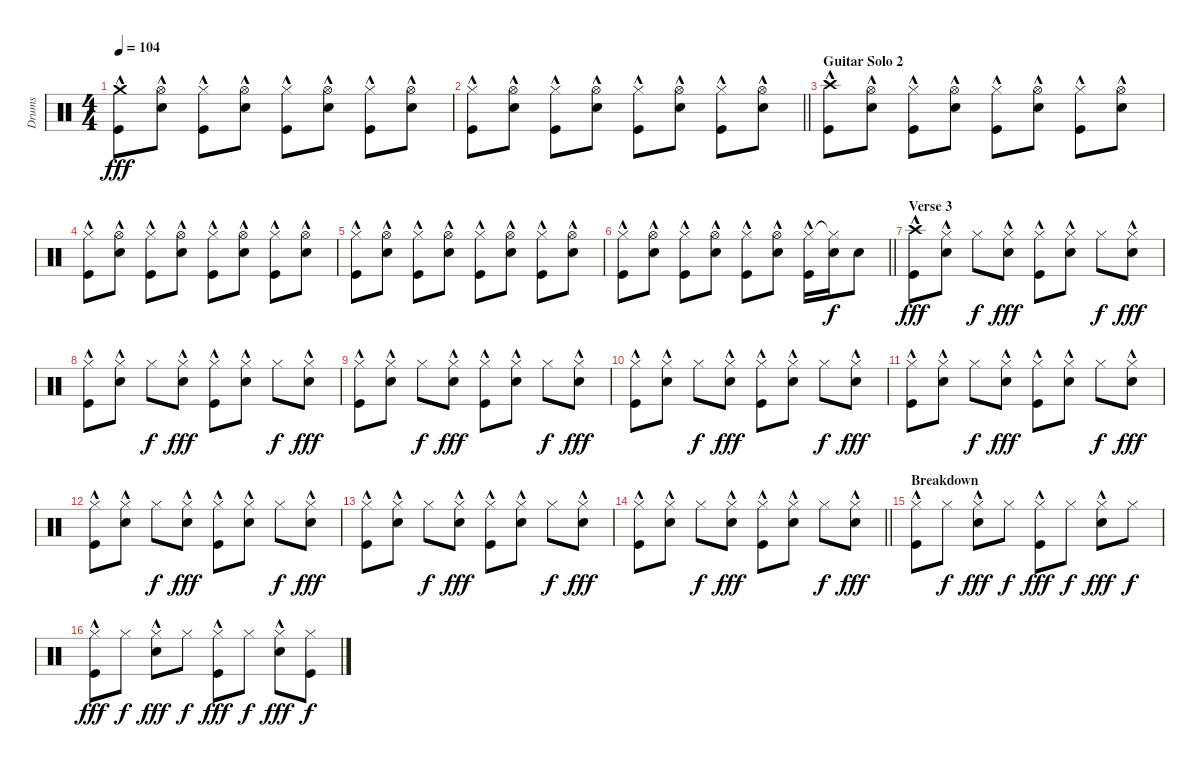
\track ("Drums" "Drums") {instrument percussion}
\staff {score}
\articulation defaults
\ts (4 4)
\tempo 104
\clef neutral
\ks c
("Crash medium (hit)"{hac} "Kick (hit)"{hac}).8{dy fff} ("Hi-Hat (open)"{hac} "Snare (hit) 2"{hac}).8 ("Hi-Hat (closed)" "Kick (hit)"{hac}).8 ("Hi-Hat (open)"{hac} "Snare (hit) 2"{hac}).8 ("Hi-Hat (closed)" "Kick (hit)"{hac}).8 ("Hi-Hat (open)"{hac} "Snare (hit) 2"{hac}).8 ("Hi-Hat (closed)" "Kick (hit)"{hac}).8 ("Hi-Hat (open)"{hac} "Snare (hit) 2"{hac}).8 |
\barLineRight lightlight
("Hi-Hat (closed)" "Kick (hit)"{hac}).8 ("Hi-Hat (open)"{hac} "Snare (hit) 2"{hac}).8 ("Hi-Hat (closed)" "Kick (hit)"{hac}).8 ("Hi-Hat (open)"{hac} "Snare (hit) 2"{hac}).8 ("Hi-Hat (closed)" "Kick (hit)"{hac}).8 ("Hi-Hat (open)"{hac} "Snare (hit) 2"{hac}).8 ("Hi-Hat (closed)" "Kick (hit)"{hac}).8 ("Hi-Hat (open)"{hac} "Snare (hit) 2"{hac}).8 |
\section ("" "Guitar Solo 2")
("Crash high (hit)"{hac} "Kick (hit)"{hac}).8 ("Hi-Hat (open)"{hac} "Snare (hit) 2"{hac}).8 ("Hi-Hat (closed)" "Kick (hit)"{hac}).8 ("Hi-Hat (open)"{hac} "Snare (hit) 2"{hac}).8 ("Hi-Hat (closed)" "Kick (hit)"{hac}).8 ("Hi-Hat (open)"{hac} "Snare (hit) 2"{hac}).8 ("Hi-Hat (closed)" "Kick (hit)"{hac}).8 ("Hi-Hat (open)"{hac} "Snare (hit) 2"{hac}).8 |
("Hi-Hat (closed)" "Kick (hit)"{hac}).8 ("Hi-Hat (open)"{hac} "Snare (hit) 2"{hac}).8 ("Hi-Hat (closed)" "Kick (hit)"{hac}).8 ("Hi-Hat (open)"{hac} "Snare (hit) 2"{hac}).8 ("Hi-Hat (closed)" "Kick (hit)"{hac}).8 ("Hi-Hat (open)"{hac} "Snare (hit) 2"{hac}).8 ("Hi-Hat (closed)" "Kick (hit)"{hac}).8 ("Hi-Hat (open)"{hac} "Snare (hit) 2"{hac}).8 |
("Hi-Hat (closed)" "Kick (hit)"{hac}).8 ("Hi-Hat (open)"{hac} "Snare (hit) 2"{hac}).8 ("Hi-Hat (closed)" "Kick (hit)"{hac}).8 ("Hi-Hat (open)"{hac} "Snare (hit) 2"{hac}).8 ("Hi-Hat (closed)" "Kick (hit)"{hac}).8 ("Hi-Hat (open)"{hac} "Snare (hit) 2"{hac}).8 ("Hi-Hat (closed)" "Kick (hit)"{hac}).8 ("Hi-Hat (open)"{hac} "Snare (hit) 2"{hac}).8 |
\barLineRight lightlight
("Hi-Hat (closed)" "Kick (hit)"{hac}).8 ("Hi-Hat (open)"{hac} "Snare (hit) 2"{hac}).8 ("Hi-Hat (closed)" "Kick (hit)"{hac}).8 ("Hi-Hat (open)"{hac} "Snare (hit) 2"{hac}).8 ("Hi-Hat (closed)" "Kick (hit)"{hac}).8 ("Hi-Hat (open)"{hac} "Snare (hit) 2"{hac}).8 ("Hi-Hat (closed)" "Kick (hit)"{hac}).16 ("Hi-Hat (closed)"{t} "Snare (hit) 2").16{dy f} "Snare (hit) 2".8 |
\section ("" "Verse 3")
("Crash high (hit)"{hac} "Kick (hit)"{hac}).8{dy fff} ("Hi-Hat (closed)"{hac} "Snare (hit) 2"{hac}).8 "Hi-Hat (closed)".8{dy f} ("Hi-Hat (closed)"{hac} "Snare (hit) 2"{hac}).8{dy fff} ("Hi-Hat (closed)" "Kick (hit)"{hac}).8 ("Hi-Hat (closed)"{hac} "Snare (hit) 2"{hac}).8 "Hi-Hat (closed)".8{dy f} ("Hi-Hat (closed)"{hac} "Snare (hit) 2"{hac}).8{dy fff} |
("Hi-Hat (closed)" "Kick (hit)"{hac}).8 ("Hi-Hat (closed)"{hac} "Snare (hit) 2"{hac}).8 "Hi-Hat (closed)".8{dy f} ("Hi-Hat (closed)"{hac} "Snare (hit) 2"{hac}).8{dy fff} ("Hi-Hat (closed)" "Kick (hit)"{hac}).8 ("Hi-Hat (closed)"{hac} "Snare (hit) 2"{hac}).8 "Hi-Hat (closed)".8{dy f} ("Hi-Hat (closed)"{hac} "Snare (hit) 2"{hac}).8{dy fff} |
("Hi-Hat (closed)" "Kick (hit)"{hac}).8 ("Hi-Hat (closed)"{hac} "Snare (hit) 2"{hac}).8 "Hi-Hat (closed)".8{dy f} ("Hi-Hat (closed)"{hac} "Snare (hit) 2"{hac}).8{dy fff} ("Hi-Hat (closed)" "Kick (hit)"{hac}).8 ("Hi-Hat (closed)"{hac} "Snare (hit) 2"{hac}).8 "Hi-Hat (closed)".8{dy f} ("Hi-Hat (closed)"{hac} "Snare (hit) 2"{hac}).8{dy fff} |
("Hi-Hat (closed)" "Kick (hit)"{hac}).8 ("Hi-Hat (closed)"{hac} "Snare (hit) 2"{hac}).8 "Hi-Hat (closed)".8{dy f} ("Hi-Hat (closed)"{hac} "Snare (hit) 2"{hac}).8{dy fff} ("Hi-Hat (closed)" "Kick (hit)"{hac}).8 ("Hi-Hat (closed)"{hac} "Snare (hit) 2"{hac}).8 "Hi-Hat (closed)".8{dy f} ("Hi-Hat (closed)"{hac} "Snare (hit) 2"{hac}).8{dy fff} |
("Hi-Hat (closed)" "Kick (hit)"{hac}).8 ("Hi-Hat (closed)"{hac} "Snare (hit) 2"{hac}).8 "Hi-Hat (closed)".8{dy f} ("Hi-Hat (closed)"{hac} "Snare (hit) 2"{hac}).8{dy fff} ("Hi-Hat (closed)" "Kick (hit)"{hac}).8 ("Hi-Hat (closed)"{hac} "Snare (hit) 2"{hac}).8 "Hi-Hat (closed)".8{dy f} ("Hi-Hat (closed)"{hac} "Snare (hit) 2"{hac}).8{dy fff} |
("Hi-Hat (closed)" "Kick (hit)"{hac}).8 ("Hi-Hat (closed)"{hac} "Snare (hit) 2"{hac}).8 "Hi-Hat (closed)".8{dy f} ("Hi-Hat (closed)"{hac} "Snare (hit) 2"{hac}).8{dy fff} ("Hi-Hat (closed)" "Kick (hit)"{hac}).8 ("Hi-Hat (closed)"{hac} "Snare (hit) 2"{hac}).8 "Hi-Hat (closed)".8{dy f} ("Hi-Hat (closed)"{hac} "Snare (hit) 2"{hac}).8{dy fff} |
("Hi-Hat (closed)" "Kick (hit)"{hac}).8 ("Hi-Hat (closed)"{hac} "Snare (hit) 2"{hac}).8 "Hi-Hat (closed)".8{dy f} ("Hi-Hat (closed)"{hac} "Snare (hit) 2"{hac}).8{dy fff} ("Hi-Hat (closed)" "Kick (hit)"{hac}).8 ("Hi-Hat (closed)"{hac} "Snare (hit) 2"{hac}).8 "Hi-Hat (closed)".8{dy f} ("Hi-Hat (closed)"{hac} "Snare (hit) 2"{hac}).8{dy fff} |
\barLineRight lightlight
("Hi-Hat (closed)" "Kick (hit)"{hac}).8 ("Hi-Hat (closed)"{hac} "Snare (hit) 2"{hac}).8 "Hi-Hat (closed)".8{dy f} ("Hi-Hat (closed)"{hac} "Snare (hit) 2"{hac}).8{dy fff} ("Hi-Hat (closed)" "Kick (hit)"{hac}).8 ("Hi-Hat (closed)"{hac} "Snare (hit) 2"{hac}).8 "Hi-Hat (closed)".8{dy f} ("Hi-Hat (closed)"{hac} "Snare (hit) 2"{hac}).8{dy fff} |
\section ("" "Breakdown")
("Hi-Hat (closed)"{hac} "Kick (hit)"{hac}).8 "Hi-Hat (closed)".8{dy f} ("Hi-Hat (closed)"{hac} "Snare (hit) 2"{hac}).8{dy fff} "Hi-Hat (closed)".8{dy f} ("Hi-Hat (closed)"{hac} "Kick (hit)"{hac}).8{dy fff} "Hi-Hat (closed)".8{dy f} ("Hi-Hat (closed)"{hac} "Snare (hit) 2"{hac}).8{dy fff} "Hi-Hat (closed)".8{dy f} |
("Hi-Hat (closed)"{hac} "Kick (hit)"{hac}).8{dy fff} "Hi-Hat (closed)".8{dy f} ("Hi-Hat (closed)"{hac} "Snare (hit) 2"{hac}).8{dy fff} "Hi-Hat (closed)".8{dy f} ("Hi-Hat (closed)"{hac} "Kick (hit)"{hac}).8{dy fff} "Hi-Hat (closed)".8{dy f} ("Hi-Hat (closed)"{hac} "Snare (hit) 2"{hac}).8{dy fff} ("Hi-Hat (closed)" "Kick (hit)").8{dy f}
